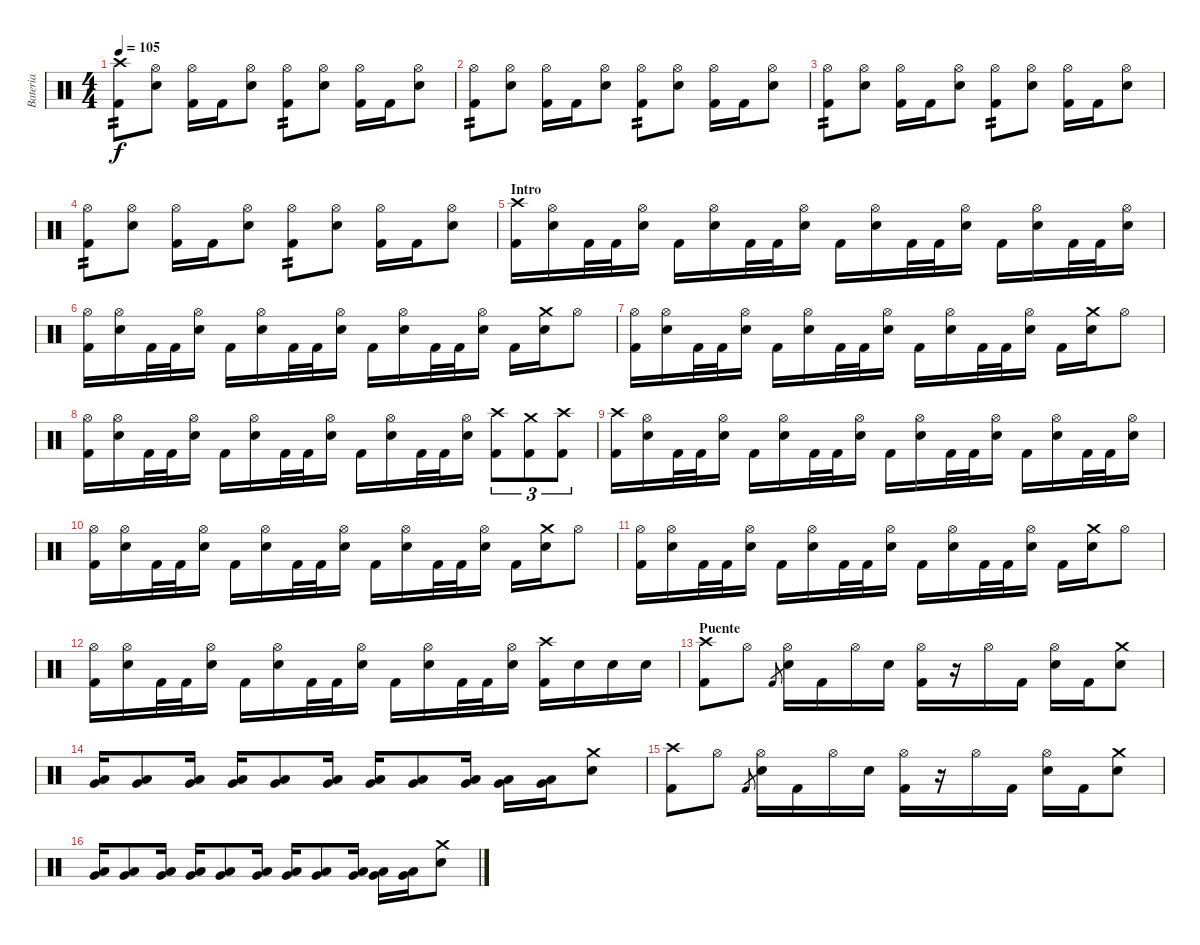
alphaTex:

\track ("Bateria" "Bateria") {instrument percussion}
\staff {score}
\articulation defaults
\ts (4 4)
\tempo 105
\clef neutral
\ks c
("Crash high (hit)" "Kick (hit) 2").8{tp 2 dy f} ("Hi-Hat (open)" "Electric Snare (hit)").8 ("Hi-Hat (open)" "Kick (hit) 2").16 "Kick (hit) 2".16 ("Hi-Hat (open)" "Electric Snare (hit)").8 ("Hi-Hat (open)" "Kick (hit) 2").8{tp 2} ("Hi-Hat (open)" "Electric Snare (hit)").8 ("Hi-Hat (open)" "Kick (hit) 2").16 "Kick (hit) 2".16 ("Hi-Hat (open)" "Electric Snare (hit)").8 |
("Hi-Hat (open)" "Kick (hit) 2").8{tp 2} ("Hi-Hat (open)" "Electric Snare (hit)").8 ("Hi-Hat (open)" "Kick (hit) 2").16 "Kick (hit) 2".16 ("Hi-Hat (open)" "Electric Snare (hit)").8 ("Hi-Hat (open)" "Kick (hit) 2").8{tp 2} ("Hi-Hat (open)" "Electric Snare (hit)").8 ("Hi-Hat (open)" "Kick (hit) 2").16 "Kick (hit) 2".16 ("Hi-Hat (open)" "Electric Snare (hit)").8 |
("Hi-Hat (open)" "Kick (hit) 2").8{tp 2} ("Hi-Hat (open)" "Electric Snare (hit)").8 ("Hi-Hat (open)" "Kick (hit) 2").16 "Kick (hit) 2".16 ("Hi-Hat (open)" "Electric Snare (hit)").8 ("Hi-Hat (open)" "Kick (hit) 2").8{tp 2} ("Hi-Hat (open)" "Electric Snare (hit)").8 ("Hi-Hat (open)" "Kick (hit) 2").16 "Kick (hit) 2".16 ("Hi-Hat (open)" "Electric Snare (hit)").8 |
("Hi-Hat (open)" "Kick (hit) 2").8{tp 2} ("Hi-Hat (open)" "Electric Snare (hit)").8 ("Hi-Hat (open)" "Kick (hit) 2").16 "Kick (hit) 2".16 ("Hi-Hat (open)" "Electric Snare (hit)").8 ("Hi-Hat (open)" "Kick (hit) 2").8{tp 2} ("Hi-Hat (open)" "Electric Snare (hit)").8 ("Hi-Hat (open)" "Kick (hit) 2").16 "Kick (hit) 2".16 ("Hi-Hat (open)" "Electric Snare (hit)").8 |
\section ("" "Intro")
("Crash high (hit)" "Kick (hit) 2").16 ("Hi-Hat (open)" "Electric Snare (hit)").16 "Kick (hit) 2".32 "Kick (hit) 2".32 ("Hi-Hat (open)" "Electric Snare (hit)").16 "Kick (hit) 2".16 ("Hi-Hat (open)" "Electric Snare (hit)").16 "Kick (hit) 2".32 "Kick (hit) 2".32 ("Hi-Hat (open)" "Electric Snare (hit)").16 "Kick (hit) 2".16 ("Hi-Hat (open)" "Electric Snare (hit)").16 "Kick (hit) 2".32 "Kick (hit) 2".32 ("Hi-Hat (open)" "Electric Snare (hit)").16 "Kick (hit) 2".16 ("Hi-Hat (open)" "Electric Snare (hit)").16 "Kick (hit) 2".32 "Kick (hit) 2".32 ("Hi-Hat (open)" "Electric Snare (hit)").16 |
("Hi-Hat (open)" "Kick (hit) 2").16 ("Hi-Hat (open)" "Electric Snare (hit)").16 "Kick (hit) 2".32 "Kick (hit) 2".32 ("Hi-Hat (open)" "Electric Snare (hit)").16 "Kick (hit) 2".16 ("Hi-Hat (open)" "Electric Snare (hit)").16 "Kick (hit) 2".32 "Kick (hit) 2".32 ("Hi-Hat (open)" "Electric Snare (hit)").16 "Kick (hit) 2".16 ("Hi-Hat (open)" "Electric Snare (hit)").16 "Kick (hit) 2".32 "Kick (hit) 2".32 ("Hi-Hat (open)" "Electric Snare (hit)").16 "Kick (hit) 2".16 ("Crash medium (hit)" "Electric Snare (hit)").16 "Hi-Hat (open)".8 |
("Hi-Hat (open)" "Kick (hit) 2").16 ("Hi-Hat (open)" "Electric Snare (hit)").16 "Kick (hit) 2".32 "Kick (hit) 2".32 ("Hi-Hat (open)" "Electric Snare (hit)").16 "Kick (hit) 2".16 ("Hi-Hat (open)" "Electric Snare (hit)").16 "Kick (hit) 2".32 "Kick (hit) 2".32 ("Hi-Hat (open)" "Electric Snare (hit)").16 "Kick (hit) 2".16 ("Hi-Hat (open)" "Electric Snare (hit)").16 "Kick (hit) 2".32 "Kick (hit) 2".32 ("Hi-Hat (open)" "Electric Snare (hit)").16 "Kick (hit) 2".16 ("Crash medium (hit)" "Electric Snare (hit)").16 "Hi-Hat (open)".8 |
("Hi-Hat (open)" "Kick (hit) 2").16 ("Hi-Hat (open)" "Electric Snare (hit)").16 "Kick (hit) 2".32 "Kick (hit) 2".32 ("Hi-Hat (open)" "Electric Snare (hit)").16 "Kick (hit) 2".16 ("Hi-Hat (open)" "Electric Snare (hit)").16 "Kick (hit) 2".32 "Kick (hit) 2".32 ("Hi-Hat (open)" "Electric Snare (hit)").16 "Kick (hit) 2".16 ("Hi-Hat (open)" "Electric Snare (hit)").16 "Kick (hit) 2".32 "Kick (hit) 2".32 ("Hi-Hat (open)" "Electric Snare (hit)").16 ("Kick (hit) 2" "Crash high (hit)").8{tu (3 2)} ("Kick (hit) 2" "Crash medium (hit)").8{tu (3 2)} ("Kick (hit) 2" "Crash high (hit)").8{tu (3 2)} |
("Crash high (hit)" "Kick (hit) 2").16 ("Hi-Hat (open)" "Electric Snare (hit)").16 "Kick (hit) 2".32 "Kick (hit) 2".32 ("Hi-Hat (open)" "Electric Snare (hit)").16 "Kick (hit) 2".16 ("Hi-Hat (open)" "Electric Snare (hit)").16 "Kick (hit) 2".32 "Kick (hit) 2".32 ("Hi-Hat (open)" "Electric Snare (hit)").16 "Kick (hit) 2".16 ("Hi-Hat (open)" "Electric Snare (hit)").16 "Kick (hit) 2".32 "Kick (hit) 2".32 ("Hi-Hat (open)" "Electric Snare (hit)").16 "Kick (hit) 2".16 ("Hi-Hat (open)" "Electric Snare (hit)").16 "Kick (hit) 2".32 "Kick (hit) 2".32 ("Hi-Hat (open)" "Electric Snare (hit)").16 |
("Hi-Hat (open)" "Kick (hit) 2").16 ("Hi-Hat (open)" "Electric Snare (hit)").16 "Kick (hit) 2".32 "Kick (hit) 2".32 ("Hi-Hat (open)" "Electric Snare (hit)").16 "Kick (hit) 2".16 ("Hi-Hat (open)" "Electric Snare (hit)").16 "Kick (hit) 2".32 "Kick (hit) 2".32 ("Hi-Hat (open)" "Electric Snare (hit)").16 "Kick (hit) 2".16 ("Hi-Hat (open)" "Electric Snare (hit)").16 "Kick (hit) 2".32 "Kick (hit) 2".32 ("Hi-Hat (open)" "Electric Snare (hit)").16 "Kick (hit) 2".16 ("Crash medium (hit)" "Electric Snare (hit)").16 "Hi-Hat (open)".8 |
("Hi-Hat (open)" "Kick (hit) 2").16 ("Hi-Hat (open)" "Electric Snare (hit)").16 "Kick (hit) 2".32 "Kick (hit) 2".32 ("Hi-Hat (open)" "Electric Snare (hit)").16 "Kick (hit) 2".16 ("Hi-Hat (open)" "Electric Snare (hit)").16 "Kick (hit) 2".32 "Kick (hit) 2".32 ("Hi-Hat (open)" "Electric Snare (hit)").16 "Kick (hit) 2".16 ("Hi-Hat (open)" "Electric Snare (hit)").16 "Kick (hit) 2".32 "Kick (hit) 2".32 ("Hi-Hat (open)" "Electric Snare (hit)").16 "Kick (hit) 2".16 ("Crash medium (hit)" "Electric Snare (hit)").16 "Hi-Hat (open)".8 |
("Hi-Hat (open)" "Kick (hit) 2").16 ("Hi-Hat (open)" "Electric Snare (hit)").16 "Kick (hit) 2".32 "Kick (hit) 2".32 ("Hi-Hat (open)" "Electric Snare (hit)").16 "Kick (hit) 2".16 ("Hi-Hat (open)" "Electric Snare (hit)").16 "Kick (hit) 2".32 "Kick (hit) 2".32 ("Hi-Hat (open)" "Electric Snare (hit)").16 "Kick (hit) 2".16 ("Hi-Hat (open)" "Electric Snare (hit)").16 "Kick (hit) 2".32 "Kick (hit) 2".32 ("Hi-Hat (open)" "Electric Snare (hit)").16 ("Kick (hit) 2" "Crash high (hit)").16 "Electric Snare (hit)".16 "Electric Snare (hit)".16 "Electric Snare (hit)".16 |
\section ("" "Puente")
("Crash high (hit)" "Kick (hit) 2").8 "Hi-Hat (open)".8 "Kick (hit) 2".8{gr} ("Hi-Hat (open)" "Electric Snare (hit)").16 "Kick (hit) 2".16 "Hi-Hat (open)".16 "Electric Snare (hit)".16 ("Hi-Hat (open)" "Kick (hit) 2").16 r.16 "Hi-Hat (open)".16 "Kick (hit) 2".16 ("Hi-Hat (open)" "Electric Snare (hit)").16 "Kick (hit) 2".16 ("Electric Snare (hit)" "Crash medium (hit)").8 |
("Very Low Tom (hit)" "Low Floor Tom (hit)").16 ("Very Low Tom (hit)" "Low Floor Tom (hit)").8 ("Very Low Tom (hit)" "Low Floor Tom (hit)").16 ("Very Low Tom (hit)" "Low Floor Tom (hit)").16 ("Very Low Tom (hit)" "Low Floor Tom (hit)").8 ("Very Low Tom (hit)" "Low Floor Tom (hit)").16 ("Very Low Tom (hit)" "Low Floor Tom (hit)").16 ("Very Low Tom (hit)" "Low Floor Tom (hit)").8 ("Very Low Tom (hit)" "Low Floor Tom (hit)").16 ("Very Low Tom (hit)" "Low Floor Tom (hit)").16 ("Very Low Tom (hit)" "Low Floor Tom (hit)").16 ("Electric Snare (hit)" "Crash medium (hit)").8 |
("Crash high (hit)" "Kick (hit) 2").8 "Hi-Hat (open)".8 "Kick (hit) 2".8{gr} ("Hi-Hat (open)" "Electric Snare (hit)").16 "Kick (hit) 2".16 "Hi-Hat (open)".16 "Electric Snare (hit)".16 ("Hi-Hat (open)" "Kick (hit) 2").16 r.16 "Hi-Hat (open)".16 "Kick (hit) 2".16 ("Hi-Hat (open)" "Electric Snare (hit)").16 "Kick (hit) 2".16 ("Electric Snare (hit)" "Crash medium (hit)").8 |
("Very Low Tom (hit)" "Low Floor Tom (hit)").16 ("Very Low Tom (hit)" "Low Floor Tom (hit)").8 ("Very Low Tom (hit)" "Low Floor Tom (hit)").16 ("Very Low Tom (hit)" "Low Floor Tom (hit)").16 ("Very Low Tom (hit)" "Low Floor Tom (hit)").8 ("Very Low Tom (hit)" "Low Floor Tom (hit)").16 ("Very Low Tom (hit)" "Low Floor Tom (hit)").16 ("Very Low Tom (hit)" "Low Floor Tom (hit)").8 ("Very Low Tom (hit)" "Low Floor Tom (hit)").16 ("Very Low Tom (hit)" "Low Floor Tom (hit)").16 ("Very Low Tom (hit)" "Low Floor Tom (hit)").16 ("Electric Snare (hit)" "Crash medium (hit)").8
